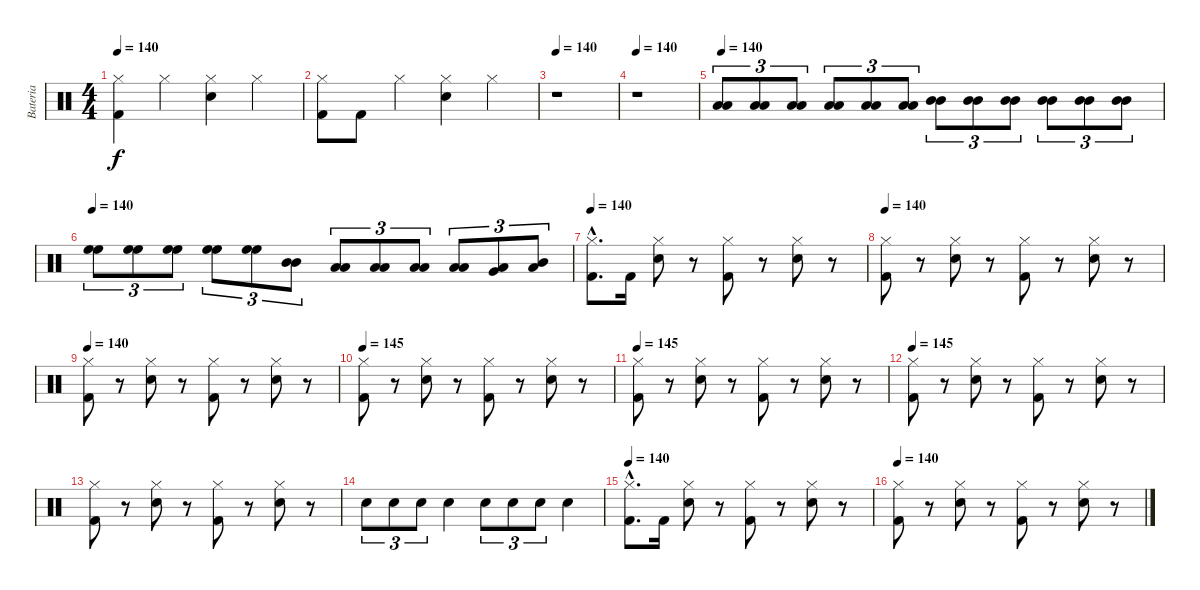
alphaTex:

\track ("Bateria" "Bateria") {instrument percussion}
\staff {score}
\articulation defaults
\ts (4 4)
\tempo 140
\clef neutral
\ks c
("Hi-Hat (closed)" "Kick (hit) 2").4{dy f} "Hi-Hat (closed)".4 ("Hi-Hat (closed)" "Electric Snare (hit)").4 "Hi-Hat (closed)".4 |
("Hi-Hat (closed)" "Kick (hit) 2").8 "Kick (hit) 2".8 "Hi-Hat (closed)".4 ("Hi-Hat (closed)" "Electric Snare (hit)").4 "Hi-Hat (closed)".4 |
\tempo 145
\tempo 140
r.1 |
\tempo 140
r.1 |
\tempo 140
("Low Tom (hit)" "Low Tom (hit)").8{tu (3 2)} ("Low Tom (hit)" "Low Tom (hit)").8{tu (3 2)} ("Low Tom (hit)" "Low Tom (hit)").8{tu (3 2)} ("Low Tom (hit)" "Low Tom (hit)").8{tu (3 2)} ("Low Tom (hit)" "Low Tom (hit)").8{tu (3 2)} ("Low Tom (hit)" "Low Tom (hit)").8{tu (3 2)} ("Mid Tom (hit)" "Mid Tom (hit)").8{tu (3 2) balance 0} ("Mid Tom (hit)" "Mid Tom (hit)").8{tu (3 2)} ("Mid Tom (hit)" "Mid Tom (hit)").8{tu (3 2)} ("Mid Tom (hit)" "Mid Tom (hit)").8{tu (3 2)} ("Mid Tom (hit)" "Mid Tom (hit)").8{tu (3 2)} ("Mid Tom (hit)" "Mid Tom (hit)").8{tu (3 2)} |
\tempo 140
("High Floor Tom (hit)" "High Floor Tom (hit)").8{tu (3 2) balance 16} ("High Floor Tom (hit)" "High Floor Tom (hit)").8{tu (3 2)} ("High Floor Tom (hit)" "High Floor Tom (hit)").8{tu (3 2)} ("High Floor Tom (hit)" "High Floor Tom (hit)").8{tu (3 2)} ("High Floor Tom (hit)" "High Floor Tom (hit)").8{tu (3 2)} ("Mid Tom (hit)" "Mid Tom (hit)").8{tu (3 2)} ("Low Tom (hit)" "Low Tom (hit)").8{tu (3 2) balance 5} ("Low Tom (hit)" "Low Tom (hit)").8{tu (3 2) balance 16} ("Low Tom (hit)" "Low Tom (hit)").8{tu (3 2) balance 1} ("Low Tom (hit)" "Low Tom (hit)").8{tu (3 2) balance 8} ("Low Tom (hit)" "Very Low Tom (hit)").8{tu (3 2)} ("Mid Tom (hit)" "Low Tom (hit)").8{tu (3 2)} |
\tempo 145
\tempo 140
("Hi-Hat (closed)"{hac} "Kick (hit) 2"{hac}).8{d} "Kick (hit) 2".16 ("Hi-Hat (closed)" "Electric Snare (hit)").8 r.8 ("Hi-Hat (closed)" "Kick (hit) 2").8 r.8 ("Hi-Hat (closed)" "Electric Snare (hit)").8 r.8 |
\tempo 145
\tempo 140
("Hi-Hat (closed)" "Kick (hit) 2").8 r.8 ("Hi-Hat (closed)" "Electric Snare (hit)").8 r.8 ("Hi-Hat (closed)" "Kick (hit) 2").8 r.8 ("Hi-Hat (closed)" "Electric Snare (hit)").8 r.8 |
\tempo 145
\tempo 140
("Hi-Hat (closed)" "Kick (hit) 2").8 r.8 ("Hi-Hat (closed)" "Electric Snare (hit)").8 r.8 ("Hi-Hat (closed)" "Kick (hit) 2").8 r.8 ("Hi-Hat (closed)" "Electric Snare (hit)").8 r.8 |
\tempo 145
("Hi-Hat (closed)" "Kick (hit) 2").8 r.8 ("Hi-Hat (closed)" "Electric Snare (hit)").8 r.8 ("Hi-Hat (closed)" "Kick (hit) 2").8 r.8 ("Hi-Hat (closed)" "Electric Snare (hit)").8 r.8 |
\tempo 145
("Hi-Hat (closed)" "Kick (hit) 2").8 r.8 ("Hi-Hat (closed)" "Electric Snare (hit)").8 r.8 ("Hi-Hat (closed)" "Kick (hit) 2").8 r.8 ("Hi-Hat (closed)" "Electric Snare (hit)").8 r.8 |
\tempo 145
("Hi-Hat (closed)" "Kick (hit) 2").8 r.8 ("Hi-Hat (closed)" "Electric Snare (hit)").8 r.8 ("Hi-Hat (closed)" "Kick (hit) 2").8 r.8 ("Hi-Hat (closed)" "Electric Snare (hit)").8 r.8 |
("Hi-Hat (closed)" "Kick (hit) 2").8 r.8 ("Hi-Hat (closed)" "Electric Snare (hit)").8 r.8 ("Hi-Hat (closed)" "Kick (hit) 2").8 r.8 ("Hi-Hat (closed)" "Electric Snare (hit)").8 r.8 |
"Electric Snare (hit)".8{tu (3 2)} "Electric Snare (hit)".8{tu (3 2)} "Electric Snare (hit)".8{tu (3 2)} "Electric Snare (hit)".4 "Electric Snare (hit)".8{tu (3 2)} "Electric Snare (hit)".8{tu (3 2)} "Electric Snare (hit)".8{tu (3 2)} "Electric Snare (hit)".4 |
\tempo 145
\tempo 140
("Hi-Hat (closed)"{hac} "Kick (hit) 2"{hac}).8{d} "Kick (hit) 2".16 ("Hi-Hat (closed)" "Electric Snare (hit)").8 r.8 ("Hi-Hat (closed)" "Kick (hit) 2").8 r.8 ("Hi-Hat (closed)" "Electric Snare (hit)").8 r.8 |
\tempo 145
\tempo 140
("Hi-Hat (closed)" "Kick (hit) 2").8 r.8 ("Hi-Hat (closed)" "Electric Snare (hit)").8 r.8 ("Hi-Hat (closed)" "Kick (hit) 2").8 r.8 ("Hi-Hat (closed)" "Electric Snare (hit)").8 r.8
